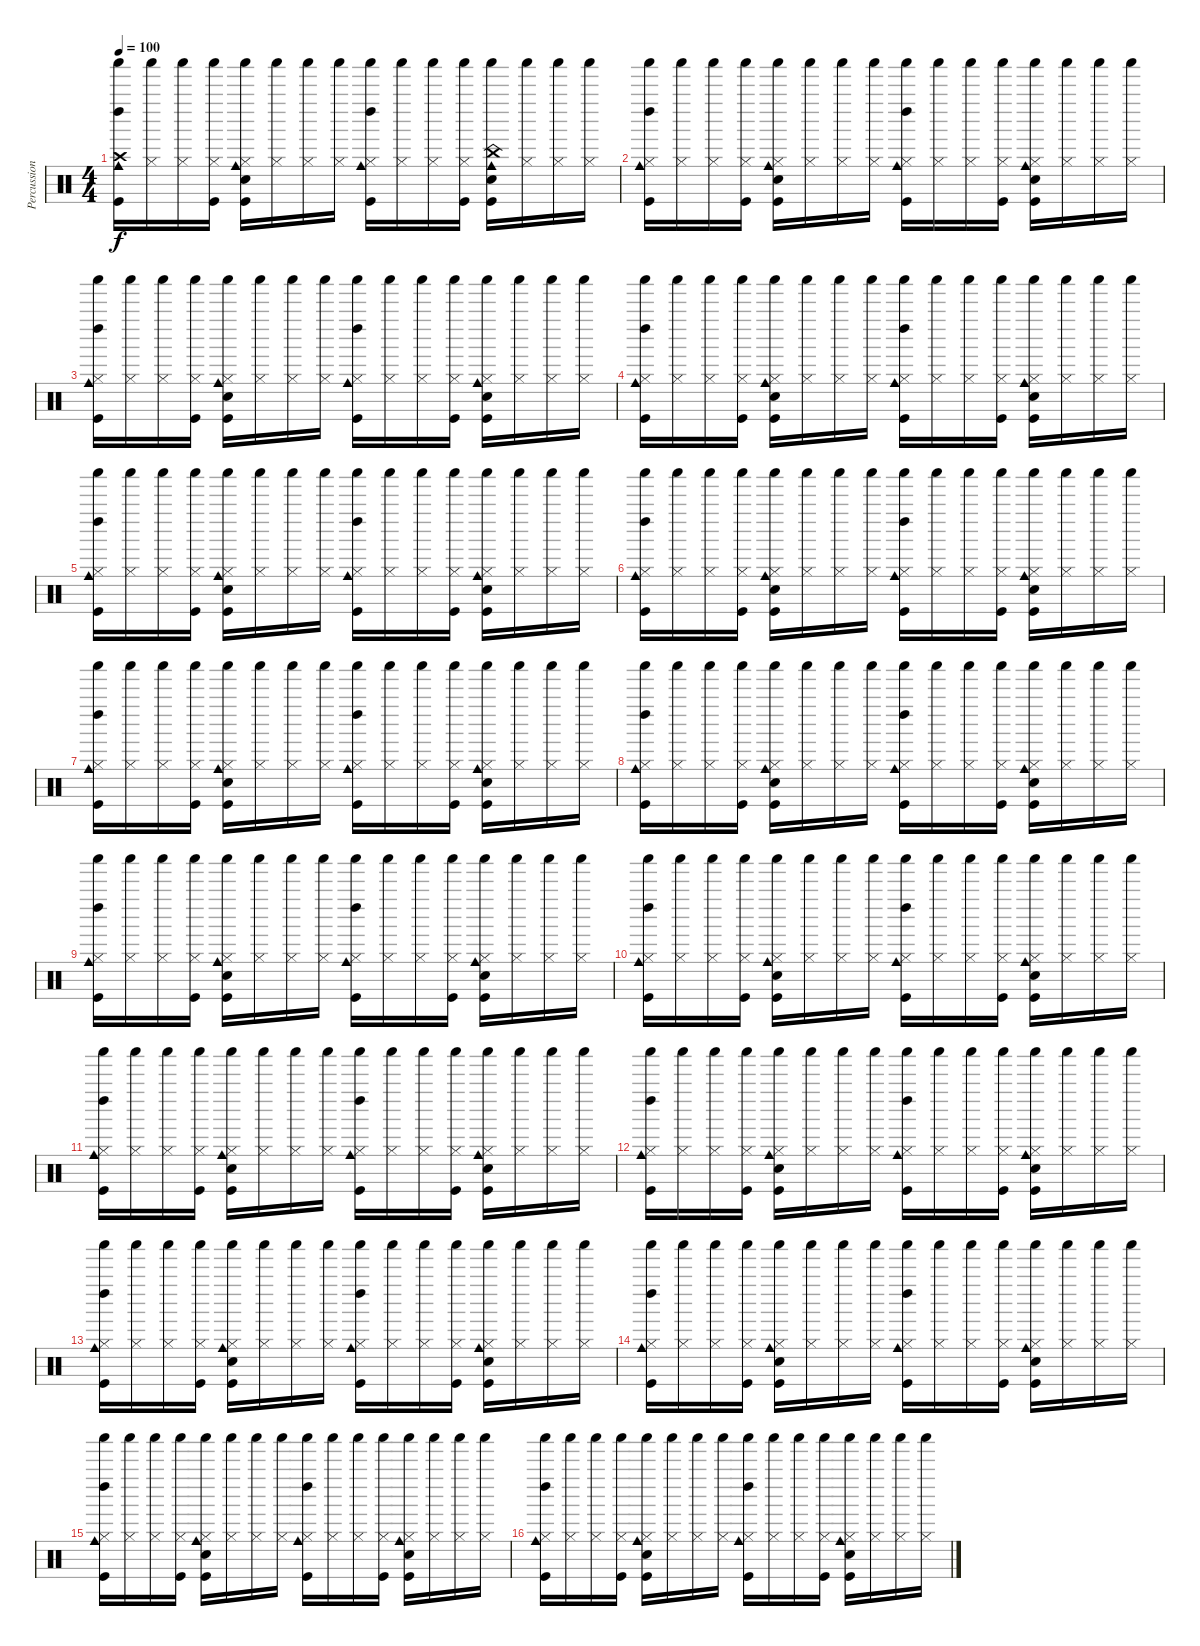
\track ("Percussions" "Percussion") {instrument percussion}
\staff {score}
\articulation defaults
\ts (4 4)
\tempo 100
\clef neutral
\ks c
("Crash high (hit)" "Kick (hit)" "Left Maraca (hit)" "Cowbell medium (hit)" "Shaker (hit)").16{dy f} ("Hi-Hat (closed)" "Shaker (hit)").16 ("Hi-Hat (closed)" "Shaker (hit)").16 ("Hi-Hat (closed)" "Kick (hit)" "Shaker (hit)").16 ("Hi-Hat (closed)" "Electric Snare (hit)" "Kick (hit)" "Cowbell medium (hit)" "Shaker (hit)").16 ("Hi-Hat (closed)" "Shaker (hit)").16 ("Hi-Hat (closed)" "Shaker (hit)").16 ("Hi-Hat (closed)" "Shaker (hit)").16 ("Hi-Hat (closed)" "Kick (hit)" "Left Maraca (hit)" "Cowbell medium (hit)" "Shaker (hit)").16 ("Hi-Hat (closed)" "Shaker (hit)").16 ("Hi-Hat (closed)" "Shaker (hit)").16 ("Hi-Hat (closed)" "Kick (hit)" "Shaker (hit)").16 ("China (hit)" "Electric Snare (hit)" "Kick (hit)" "Cowbell medium (hit)" "Shaker (hit)").16 ("Hi-Hat (closed)" "Shaker (hit)").16 ("Hi-Hat (closed)" "Shaker (hit)").16 ("Hi-Hat (closed)" "Shaker (hit)").16 |
("Hi-Hat (closed)" "Kick (hit)" "Left Maraca (hit)" "Cowbell medium (hit)" "Shaker (hit)").16 ("Hi-Hat (closed)" "Shaker (hit)").16 ("Hi-Hat (closed)" "Shaker (hit)").16 ("Hi-Hat (closed)" "Kick (hit)" "Shaker (hit)").16 ("Hi-Hat (closed)" "Electric Snare (hit)" "Kick (hit)" "Cowbell medium (hit)" "Shaker (hit)").16 ("Hi-Hat (closed)" "Shaker (hit)").16 ("Hi-Hat (closed)" "Shaker (hit)").16 ("Hi-Hat (closed)" "Shaker (hit)").16 ("Hi-Hat (closed)" "Kick (hit)" "Left Maraca (hit)" "Cowbell medium (hit)" "Shaker (hit)").16 ("Hi-Hat (closed)" "Shaker (hit)").16 ("Hi-Hat (closed)" "Shaker (hit)").16 ("Hi-Hat (closed)" "Kick (hit)" "Shaker (hit)").16 ("Hi-Hat (closed)" "Electric Snare (hit)" "Kick (hit)" "Cowbell medium (hit)" "Shaker (hit)").16 ("Hi-Hat (closed)" "Shaker (hit)").16 ("Hi-Hat (closed)" "Shaker (hit)").16 ("Hi-Hat (closed)" "Shaker (hit)").16 |
("Hi-Hat (closed)" "Kick (hit)" "Left Maraca (hit)" "Cowbell medium (hit)" "Shaker (hit)").16 ("Hi-Hat (closed)" "Shaker (hit)").16 ("Hi-Hat (closed)" "Shaker (hit)").16 ("Hi-Hat (closed)" "Kick (hit)" "Shaker (hit)").16 ("Hi-Hat (closed)" "Electric Snare (hit)" "Kick (hit)" "Cowbell medium (hit)" "Shaker (hit)").16 ("Hi-Hat (closed)" "Shaker (hit)").16 ("Hi-Hat (closed)" "Shaker (hit)").16 ("Hi-Hat (closed)" "Shaker (hit)").16 ("Hi-Hat (closed)" "Kick (hit)" "Left Maraca (hit)" "Cowbell medium (hit)" "Shaker (hit)").16 ("Hi-Hat (closed)" "Shaker (hit)").16 ("Hi-Hat (closed)" "Shaker (hit)").16 ("Hi-Hat (closed)" "Kick (hit)" "Shaker (hit)").16 ("Hi-Hat (closed)" "Electric Snare (hit)" "Kick (hit)" "Cowbell medium (hit)" "Shaker (hit)").16 ("Hi-Hat (closed)" "Shaker (hit)").16 ("Hi-Hat (closed)" "Shaker (hit)").16 ("Hi-Hat (closed)" "Shaker (hit)").16 |
("Hi-Hat (closed)" "Kick (hit)" "Left Maraca (hit)" "Cowbell medium (hit)" "Shaker (hit)").16 ("Hi-Hat (closed)" "Shaker (hit)").16 ("Hi-Hat (closed)" "Shaker (hit)").16 ("Hi-Hat (closed)" "Kick (hit)" "Shaker (hit)").16 ("Hi-Hat (closed)" "Electric Snare (hit)" "Kick (hit)" "Cowbell medium (hit)" "Shaker (hit)").16 ("Hi-Hat (closed)" "Shaker (hit)").16 ("Hi-Hat (closed)" "Shaker (hit)").16 ("Hi-Hat (closed)" "Shaker (hit)").16 ("Hi-Hat (closed)" "Kick (hit)" "Left Maraca (hit)" "Cowbell medium (hit)" "Shaker (hit)").16 ("Hi-Hat (closed)" "Shaker (hit)").16 ("Hi-Hat (closed)" "Shaker (hit)").16 ("Hi-Hat (closed)" "Kick (hit)" "Shaker (hit)").16 ("Hi-Hat (closed)" "Electric Snare (hit)" "Kick (hit)" "Cowbell medium (hit)" "Shaker (hit)").16 ("Hi-Hat (closed)" "Shaker (hit)").16 ("Hi-Hat (closed)" "Shaker (hit)").16 ("Hi-Hat (closed)" "Shaker (hit)").16 |
("Hi-Hat (closed)" "Kick (hit)" "Left Maraca (hit)" "Cowbell medium (hit)" "Shaker (hit)").16 ("Hi-Hat (closed)" "Shaker (hit)").16 ("Hi-Hat (closed)" "Shaker (hit)").16 ("Hi-Hat (closed)" "Kick (hit)" "Shaker (hit)").16 ("Hi-Hat (closed)" "Electric Snare (hit)" "Kick (hit)" "Cowbell medium (hit)" "Shaker (hit)").16 ("Hi-Hat (closed)" "Shaker (hit)").16 ("Hi-Hat (closed)" "Shaker (hit)").16 ("Hi-Hat (closed)" "Shaker (hit)").16 ("Hi-Hat (closed)" "Kick (hit)" "Left Maraca (hit)" "Cowbell medium (hit)" "Shaker (hit)").16 ("Hi-Hat (closed)" "Shaker (hit)").16 ("Hi-Hat (closed)" "Shaker (hit)").16 ("Hi-Hat (closed)" "Kick (hit)" "Shaker (hit)").16 ("Hi-Hat (closed)" "Electric Snare (hit)" "Kick (hit)" "Cowbell medium (hit)" "Shaker (hit)").16 ("Hi-Hat (closed)" "Shaker (hit)").16 ("Hi-Hat (closed)" "Shaker (hit)").16 ("Hi-Hat (closed)" "Shaker (hit)").16 |
("Hi-Hat (closed)" "Kick (hit)" "Left Maraca (hit)" "Cowbell medium (hit)" "Shaker (hit)").16 ("Hi-Hat (closed)" "Shaker (hit)").16 ("Hi-Hat (closed)" "Shaker (hit)").16 ("Hi-Hat (closed)" "Kick (hit)" "Shaker (hit)").16 ("Hi-Hat (closed)" "Electric Snare (hit)" "Kick (hit)" "Cowbell medium (hit)" "Shaker (hit)").16 ("Hi-Hat (closed)" "Shaker (hit)").16 ("Hi-Hat (closed)" "Shaker (hit)").16 ("Hi-Hat (closed)" "Shaker (hit)").16 ("Hi-Hat (closed)" "Kick (hit)" "Left Maraca (hit)" "Cowbell medium (hit)" "Shaker (hit)").16 ("Hi-Hat (closed)" "Shaker (hit)").16 ("Hi-Hat (closed)" "Shaker (hit)").16 ("Hi-Hat (closed)" "Kick (hit)" "Shaker (hit)").16 ("Hi-Hat (closed)" "Electric Snare (hit)" "Kick (hit)" "Cowbell medium (hit)" "Shaker (hit)").16 ("Hi-Hat (closed)" "Shaker (hit)").16 ("Hi-Hat (closed)" "Shaker (hit)").16 ("Hi-Hat (closed)" "Shaker (hit)").16 |
("Hi-Hat (closed)" "Kick (hit)" "Left Maraca (hit)" "Cowbell medium (hit)" "Shaker (hit)").16 ("Hi-Hat (closed)" "Shaker (hit)").16 ("Hi-Hat (closed)" "Shaker (hit)").16 ("Hi-Hat (closed)" "Kick (hit)" "Shaker (hit)").16 ("Hi-Hat (closed)" "Electric Snare (hit)" "Kick (hit)" "Cowbell medium (hit)" "Shaker (hit)").16 ("Hi-Hat (closed)" "Shaker (hit)").16 ("Hi-Hat (closed)" "Shaker (hit)").16 ("Hi-Hat (closed)" "Shaker (hit)").16 ("Hi-Hat (closed)" "Kick (hit)" "Left Maraca (hit)" "Cowbell medium (hit)" "Shaker (hit)").16 ("Hi-Hat (closed)" "Shaker (hit)").16 ("Hi-Hat (closed)" "Shaker (hit)").16 ("Hi-Hat (closed)" "Kick (hit)" "Shaker (hit)").16 ("Hi-Hat (closed)" "Electric Snare (hit)" "Kick (hit)" "Cowbell medium (hit)" "Shaker (hit)").16 ("Hi-Hat (closed)" "Shaker (hit)").16 ("Hi-Hat (closed)" "Shaker (hit)").16 ("Hi-Hat (closed)" "Shaker (hit)").16 |
("Hi-Hat (closed)" "Kick (hit)" "Left Maraca (hit)" "Cowbell medium (hit)" "Shaker (hit)").16 ("Hi-Hat (closed)" "Shaker (hit)").16 ("Hi-Hat (closed)" "Shaker (hit)").16 ("Hi-Hat (closed)" "Kick (hit)" "Shaker (hit)").16 ("Hi-Hat (closed)" "Electric Snare (hit)" "Kick (hit)" "Cowbell medium (hit)" "Shaker (hit)").16 ("Hi-Hat (closed)" "Shaker (hit)").16 ("Hi-Hat (closed)" "Shaker (hit)").16 ("Hi-Hat (closed)" "Shaker (hit)").16 ("Hi-Hat (closed)" "Kick (hit)" "Left Maraca (hit)" "Cowbell medium (hit)" "Shaker (hit)").16 ("Hi-Hat (closed)" "Shaker (hit)").16 ("Hi-Hat (closed)" "Shaker (hit)").16 ("Hi-Hat (closed)" "Kick (hit)" "Shaker (hit)").16 ("Hi-Hat (closed)" "Electric Snare (hit)" "Kick (hit)" "Cowbell medium (hit)" "Shaker (hit)").16 ("Hi-Hat (closed)" "Shaker (hit)").16 ("Hi-Hat (closed)" "Shaker (hit)").16 ("Hi-Hat (closed)" "Shaker (hit)").16 |
("Hi-Hat (closed)" "Kick (hit)" "Left Maraca (hit)" "Cowbell medium (hit)" "Shaker (hit)").16 ("Hi-Hat (closed)" "Shaker (hit)").16 ("Hi-Hat (closed)" "Shaker (hit)").16 ("Hi-Hat (closed)" "Kick (hit)" "Shaker (hit)").16 ("Hi-Hat (closed)" "Electric Snare (hit)" "Kick (hit)" "Cowbell medium (hit)" "Shaker (hit)").16 ("Hi-Hat (closed)" "Shaker (hit)").16 ("Hi-Hat (closed)" "Shaker (hit)").16 ("Hi-Hat (closed)" "Shaker (hit)").16 ("Hi-Hat (closed)" "Kick (hit)" "Left Maraca (hit)" "Cowbell medium (hit)" "Shaker (hit)").16 ("Hi-Hat (closed)" "Shaker (hit)").16 ("Hi-Hat (closed)" "Shaker (hit)").16 ("Hi-Hat (closed)" "Kick (hit)" "Shaker (hit)").16 ("Hi-Hat (closed)" "Electric Snare (hit)" "Kick (hit)" "Cowbell medium (hit)" "Shaker (hit)").16 ("Hi-Hat (closed)" "Shaker (hit)").16 ("Hi-Hat (closed)" "Shaker (hit)").16 ("Hi-Hat (closed)" "Shaker (hit)").16 |
("Hi-Hat (closed)" "Kick (hit)" "Left Maraca (hit)" "Cowbell medium (hit)" "Shaker (hit)").16 ("Hi-Hat (closed)" "Shaker (hit)").16 ("Hi-Hat (closed)" "Shaker (hit)").16 ("Hi-Hat (closed)" "Kick (hit)" "Shaker (hit)").16 ("Hi-Hat (closed)" "Electric Snare (hit)" "Kick (hit)" "Cowbell medium (hit)" "Shaker (hit)").16 ("Hi-Hat (closed)" "Shaker (hit)").16 ("Hi-Hat (closed)" "Shaker (hit)").16 ("Hi-Hat (closed)" "Shaker (hit)").16 ("Hi-Hat (closed)" "Kick (hit)" "Left Maraca (hit)" "Cowbell medium (hit)" "Shaker (hit)").16 ("Hi-Hat (closed)" "Shaker (hit)").16 ("Hi-Hat (closed)" "Shaker (hit)").16 ("Hi-Hat (closed)" "Kick (hit)" "Shaker (hit)").16 ("Hi-Hat (closed)" "Electric Snare (hit)" "Kick (hit)" "Cowbell medium (hit)" "Shaker (hit)").16 ("Hi-Hat (closed)" "Shaker (hit)").16 ("Hi-Hat (closed)" "Shaker (hit)").16 ("Hi-Hat (closed)" "Shaker (hit)").16 |
("Hi-Hat (closed)" "Kick (hit)" "Left Maraca (hit)" "Cowbell medium (hit)" "Shaker (hit)").16 ("Hi-Hat (closed)" "Shaker (hit)").16 ("Hi-Hat (closed)" "Shaker (hit)").16 ("Hi-Hat (closed)" "Kick (hit)" "Shaker (hit)").16 ("Hi-Hat (closed)" "Electric Snare (hit)" "Kick (hit)" "Cowbell medium (hit)" "Shaker (hit)").16 ("Hi-Hat (closed)" "Shaker (hit)").16 ("Hi-Hat (closed)" "Shaker (hit)").16 ("Hi-Hat (closed)" "Shaker (hit)").16 ("Hi-Hat (closed)" "Kick (hit)" "Left Maraca (hit)" "Cowbell medium (hit)" "Shaker (hit)").16 ("Hi-Hat (closed)" "Shaker (hit)").16 ("Hi-Hat (closed)" "Shaker (hit)").16 ("Hi-Hat (closed)" "Kick (hit)" "Shaker (hit)").16 ("Hi-Hat (closed)" "Electric Snare (hit)" "Kick (hit)" "Cowbell medium (hit)" "Shaker (hit)").16 ("Hi-Hat (closed)" "Shaker (hit)").16 ("Hi-Hat (closed)" "Shaker (hit)").16 ("Hi-Hat (closed)" "Shaker (hit)").16 |
("Hi-Hat (closed)" "Kick (hit)" "Left Maraca (hit)" "Cowbell medium (hit)" "Shaker (hit)").16 ("Hi-Hat (closed)" "Shaker (hit)").16 ("Hi-Hat (closed)" "Shaker (hit)").16 ("Hi-Hat (closed)" "Kick (hit)" "Shaker (hit)").16 ("Hi-Hat (closed)" "Electric Snare (hit)" "Kick (hit)" "Cowbell medium (hit)" "Shaker (hit)").16 ("Hi-Hat (closed)" "Shaker (hit)").16 ("Hi-Hat (closed)" "Shaker (hit)").16 ("Hi-Hat (closed)" "Shaker (hit)").16 ("Hi-Hat (closed)" "Kick (hit)" "Left Maraca (hit)" "Cowbell medium (hit)" "Shaker (hit)").16 ("Hi-Hat (closed)" "Shaker (hit)").16 ("Hi-Hat (closed)" "Shaker (hit)").16 ("Hi-Hat (closed)" "Kick (hit)" "Shaker (hit)").16 ("Hi-Hat (closed)" "Electric Snare (hit)" "Kick (hit)" "Cowbell medium (hit)" "Shaker (hit)").16 ("Hi-Hat (closed)" "Shaker (hit)").16 ("Hi-Hat (closed)" "Shaker (hit)").16 ("Hi-Hat (closed)" "Shaker (hit)").16 |
("Hi-Hat (closed)" "Kick (hit)" "Left Maraca (hit)" "Cowbell medium (hit)" "Shaker (hit)").16{volume 10} ("Hi-Hat (closed)" "Shaker (hit)").16 ("Hi-Hat (closed)" "Shaker (hit)").16 ("Hi-Hat (closed)" "Kick (hit)" "Shaker (hit)").16 ("Hi-Hat (closed)" "Electric Snare (hit)" "Kick (hit)" "Cowbell medium (hit)" "Shaker (hit)").16 ("Hi-Hat (closed)" "Shaker (hit)").16 ("Hi-Hat (closed)" "Shaker (hit)").16 ("Hi-Hat (closed)" "Shaker (hit)").16 ("Hi-Hat (closed)" "Kick (hit)" "Left Maraca (hit)" "Cowbell medium (hit)" "Shaker (hit)").16 ("Hi-Hat (closed)" "Shaker (hit)").16 ("Hi-Hat (closed)" "Shaker (hit)").16 ("Hi-Hat (closed)" "Kick (hit)" "Shaker (hit)").16 ("Hi-Hat (closed)" "Electric Snare (hit)" "Kick (hit)" "Cowbell medium (hit)" "Shaker (hit)").16 ("Hi-Hat (closed)" "Shaker (hit)").16 ("Hi-Hat (closed)" "Shaker (hit)").16 ("Hi-Hat (closed)" "Shaker (hit)").16 |
("Hi-Hat (closed)" "Kick (hit)" "Left Maraca (hit)" "Cowbell medium (hit)" "Shaker (hit)").16 ("Hi-Hat (closed)" "Shaker (hit)").16 ("Hi-Hat (closed)" "Shaker (hit)").16 ("Hi-Hat (closed)" "Kick (hit)" "Shaker (hit)").16 ("Hi-Hat (closed)" "Electric Snare (hit)" "Kick (hit)" "Cowbell medium (hit)" "Shaker (hit)").16 ("Hi-Hat (closed)" "Shaker (hit)").16 ("Hi-Hat (closed)" "Shaker (hit)").16 ("Hi-Hat (closed)" "Shaker (hit)").16 ("Hi-Hat (closed)" "Kick (hit)" "Left Maraca (hit)" "Cowbell medium (hit)" "Shaker (hit)").16 ("Hi-Hat (closed)" "Shaker (hit)").16 ("Hi-Hat (closed)" "Shaker (hit)").16 ("Hi-Hat (closed)" "Kick (hit)" "Shaker (hit)").16 ("Hi-Hat (closed)" "Electric Snare (hit)" "Kick (hit)" "Cowbell medium (hit)" "Shaker (hit)").16 ("Hi-Hat (closed)" "Shaker (hit)").16 ("Hi-Hat (closed)" "Shaker (hit)").16 ("Hi-Hat (closed)" "Shaker (hit)").16 |
("Hi-Hat (closed)" "Kick (hit)" "Left Maraca (hit)" "Cowbell medium (hit)" "Shaker (hit)").16{volume 4} ("Hi-Hat (closed)" "Shaker (hit)").16 ("Hi-Hat (closed)" "Shaker (hit)").16 ("Hi-Hat (closed)" "Kick (hit)" "Shaker (hit)").16 ("Hi-Hat (closed)" "Electric Snare (hit)" "Kick (hit)" "Cowbell medium (hit)" "Shaker (hit)").16 ("Hi-Hat (closed)" "Shaker (hit)").16 ("Hi-Hat (closed)" "Shaker (hit)").16 ("Hi-Hat (closed)" "Shaker (hit)").16 ("Hi-Hat (closed)" "Kick (hit)" "Left Maraca (hit)" "Cowbell medium (hit)" "Shaker (hit)").16 ("Hi-Hat (closed)" "Shaker (hit)").16 ("Hi-Hat (closed)" "Shaker (hit)").16 ("Hi-Hat (closed)" "Kick (hit)" "Shaker (hit)").16 ("Hi-Hat (closed)" "Electric Snare (hit)" "Kick (hit)" "Cowbell medium (hit)" "Shaker (hit)").16 ("Hi-Hat (closed)" "Shaker (hit)").16 ("Hi-Hat (closed)" "Shaker (hit)").16 ("Hi-Hat (closed)" "Shaker (hit)").16 |
("Hi-Hat (closed)" "Kick (hit)" "Left Maraca (hit)" "Cowbell medium (hit)" "Shaker (hit)").16 ("Hi-Hat (closed)" "Shaker (hit)").16 ("Hi-Hat (closed)" "Shaker (hit)").16 ("Hi-Hat (closed)" "Kick (hit)" "Shaker (hit)").16 ("Hi-Hat (closed)" "Electric Snare (hit)" "Kick (hit)" "Cowbell medium (hit)" "Shaker (hit)").16 ("Hi-Hat (closed)" "Shaker (hit)").16 ("Hi-Hat (closed)" "Shaker (hit)").16 ("Hi-Hat (closed)" "Shaker (hit)").16 ("Hi-Hat (closed)" "Kick (hit)" "Left Maraca (hit)" "Cowbell medium (hit)" "Shaker (hit)").16 ("Hi-Hat (closed)" "Shaker (hit)").16 ("Hi-Hat (closed)" "Shaker (hit)").16 ("Hi-Hat (closed)" "Kick (hit)" "Shaker (hit)").16 ("Hi-Hat (closed)" "Electric Snare (hit)" "Kick (hit)" "Cowbell medium (hit)" "Shaker (hit)").16 ("Hi-Hat (closed)" "Shaker (hit)").16 ("Hi-Hat (closed)" "Shaker (hit)").16 ("Hi-Hat (closed)" "Shaker (hit)").16
